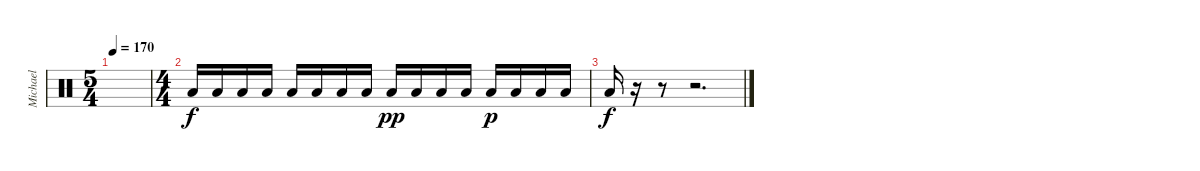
\track ("Michael" "Michael") {instrument percussion}
\staff {score}
\articulation defaults
\ts (5 4)
\tempo 170
\clef neutral
\ks c
|
\ts (4 4)
"Low Floor Tom (hit)".16 "Low Floor Tom (hit)".16 "Low Floor Tom (hit)".16 "Low Floor Tom (hit)".16 "Low Floor Tom (hit)".16 "Low Floor Tom (hit)".16 "Low Floor Tom (hit)".16 "Low Floor Tom (hit)".16 "Low Floor Tom (hit)".16{dy pp} "Low Floor Tom (hit)".16 "Low Floor Tom (hit)".16 "Low Floor Tom (hit)".16 "Low Floor Tom (hit)".16{dy p} "Low Floor Tom (hit)".16 "Low Floor Tom (hit)".16 "Low Floor Tom (hit)".16 |
"Low Floor Tom (hit)".16{dy f} r.16 r.8 r.2{d}
